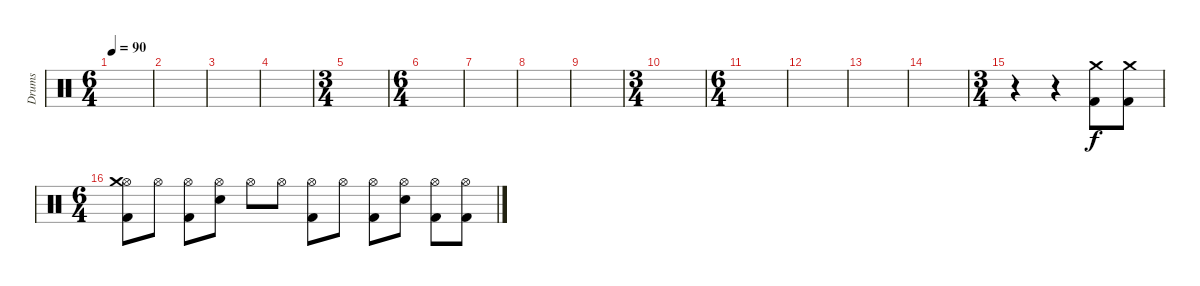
\track ("Drums" "Drums") {instrument percussion}
\staff {score}
\articulation defaults
\ts (6 4)
\tempo 90
\clef neutral
\ks c
|
|
|
|
\ts (3 4)
|
\ts (6 4)
|
|
|
|
\ts (3 4)
|
\ts (6 4)
|
|
|
|
\ts (3 4)
r.4 r.4 ("Kick (hit) 2" "Crash medium (hit)").8 ("Kick (hit) 2" "Crash medium (hit)").8 |
\ts (6 4)
("Hi-Hat (open)" "Kick (hit) 2" "Crash medium (hit)").8 "Hi-Hat (open)".8 ("Hi-Hat (open)" "Kick (hit) 2").8 ("Hi-Hat (open)" "Electric Snare (hit)").8 "Hi-Hat (open)".8 "Hi-Hat (open)".8 ("Hi-Hat (open)" "Kick (hit) 2").8 "Hi-Hat (open)".8 ("Hi-Hat (open)" "Kick (hit) 2").8 ("Hi-Hat (open)" "Electric Snare (hit)").8 ("Hi-Hat (open)" "Kick (hit) 2").8 ("Hi-Hat (open)" "Kick (hit) 2").8
